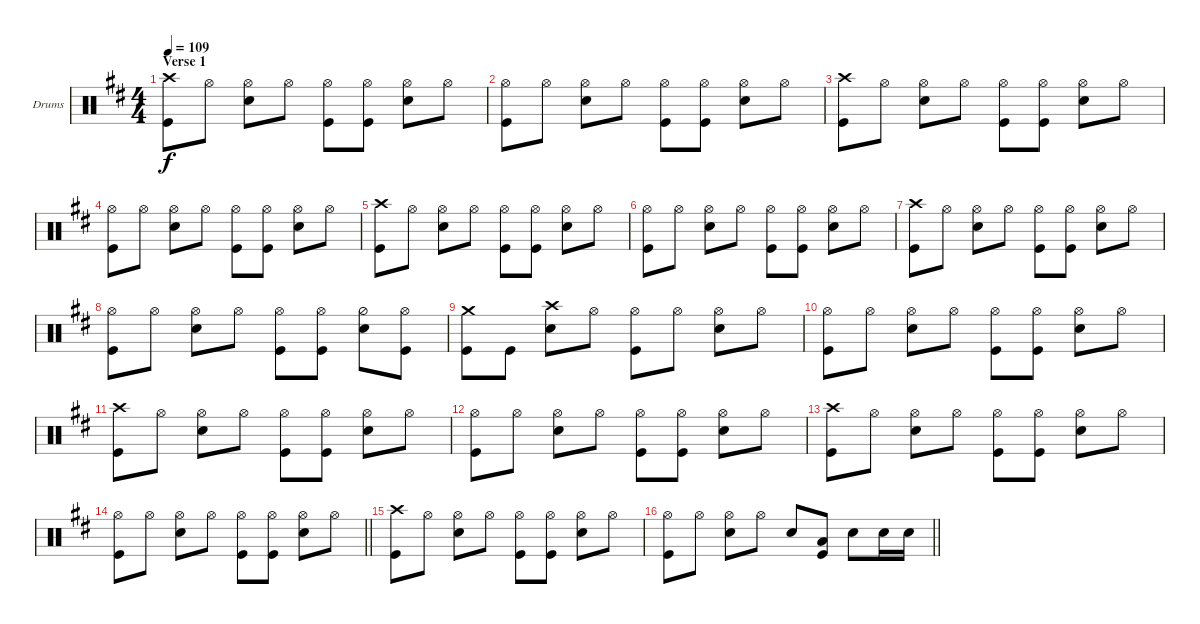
\bracketExtendMode groupsimilarinstruments
\firstSystemTrackNameOrientation horizontal
\otherSystemsTrackNameOrientation horizontal
\track ("Drumkit" "Drums") {instrument percussion}
\staff {score}
\articulation defaults
\ts (4 4)
\section ("" "Verse 1")
\tempo 109
\clef neutral
\ks d
("Kick (hit)" "Crash high (hit)").8{dy f} "Hi-Hat (open)".8 ("Snare (hit) 2" "Hi-Hat (open)").8 "Hi-Hat (open)".8 ("Kick (hit)" "Hi-Hat (open)").8 ("Kick (hit)" "Hi-Hat (open)").8 ("Snare (hit) 2" "Hi-Hat (open)").8 "Hi-Hat (open)".8 |
("Kick (hit)" "Hi-Hat (open)").8 "Hi-Hat (open)".8 ("Snare (hit) 2" "Hi-Hat (open)").8 "Hi-Hat (open)".8 ("Kick (hit)" "Hi-Hat (open)").8 ("Kick (hit)" "Hi-Hat (open)").8 ("Snare (hit) 2" "Hi-Hat (open)").8 "Hi-Hat (open)".8 |
("Kick (hit)" "Crash high (hit)").8 "Hi-Hat (open)".8 ("Snare (hit) 2" "Hi-Hat (open)").8 "Hi-Hat (open)".8 ("Kick (hit)" "Hi-Hat (open)").8 ("Kick (hit)" "Hi-Hat (open)").8 ("Snare (hit) 2" "Hi-Hat (open)").8 "Hi-Hat (open)".8 |
("Kick (hit)" "Hi-Hat (open)").8 "Hi-Hat (open)".8 ("Snare (hit) 2" "Hi-Hat (open)").8 "Hi-Hat (open)".8 ("Kick (hit)" "Hi-Hat (open)").8 ("Kick (hit)" "Hi-Hat (open)").8 ("Snare (hit) 2" "Hi-Hat (open)").8 "Hi-Hat (open)".8 |
("Kick (hit)" "Crash high (hit)").8 "Hi-Hat (open)".8 ("Snare (hit) 2" "Hi-Hat (open)").8 "Hi-Hat (open)".8 ("Kick (hit)" "Hi-Hat (open)").8 ("Kick (hit)" "Hi-Hat (open)").8 ("Snare (hit) 2" "Hi-Hat (open)").8 "Hi-Hat (open)".8 |
("Kick (hit)" "Hi-Hat (open)").8 "Hi-Hat (open)".8 ("Snare (hit) 2" "Hi-Hat (open)").8 "Hi-Hat (open)".8 ("Kick (hit)" "Hi-Hat (open)").8 ("Kick (hit)" "Hi-Hat (open)").8 ("Snare (hit) 2" "Hi-Hat (open)").8 "Hi-Hat (open)".8 |
("Kick (hit)" "Crash high (hit)").8 "Hi-Hat (open)".8 ("Snare (hit) 2" "Hi-Hat (open)").8 "Hi-Hat (open)".8 ("Kick (hit)" "Hi-Hat (open)").8 ("Kick (hit)" "Hi-Hat (open)").8 ("Snare (hit) 2" "Hi-Hat (open)").8 "Hi-Hat (open)".8 |
("Kick (hit)" "Hi-Hat (open)").8 "Hi-Hat (open)".8 ("Snare (hit) 2" "Hi-Hat (open)").8 "Hi-Hat (open)".8 ("Kick (hit)" "Hi-Hat (open)").8 ("Kick (hit)" "Hi-Hat (open)").8 ("Snare (hit) 2" "Hi-Hat (half)").8 ("Kick (hit)" "Hi-Hat (open)").8 |
("Kick (hit)" "Crash medium (hit)").8 "Kick (hit)".8 ("Snare (hit) 2" "Crash high (hit)").8 "Hi-Hat (open)".8 ("Kick (hit)" "Hi-Hat (open)").8 "Hi-Hat (open)".8 ("Snare (hit) 2" "Hi-Hat (open)").8 "Hi-Hat (open)".8 |
("Kick (hit)" "Hi-Hat (open)").8 "Hi-Hat (open)".8 ("Snare (hit) 2" "Hi-Hat (open)").8 "Hi-Hat (open)".8 ("Kick (hit)" "Hi-Hat (open)").8 ("Kick (hit)" "Hi-Hat (open)").8 ("Snare (hit) 2" "Hi-Hat (open)").8 "Hi-Hat (open)".8 |
("Kick (hit)" "Crash high (hit)").8 "Hi-Hat (open)".8 ("Snare (hit) 2" "Hi-Hat (open)").8 "Hi-Hat (open)".8 ("Kick (hit)" "Hi-Hat (open)").8 ("Kick (hit)" "Hi-Hat (open)").8 ("Snare (hit) 2" "Hi-Hat (open)").8 "Hi-Hat (open)".8 |
("Kick (hit)" "Hi-Hat (open)").8 "Hi-Hat (open)".8 ("Snare (hit) 2" "Hi-Hat (open)").8 "Hi-Hat (open)".8 ("Kick (hit)" "Hi-Hat (open)").8 ("Kick (hit)" "Hi-Hat (open)").8 ("Snare (hit) 2" "Hi-Hat (open)").8 "Hi-Hat (open)".8 |
("Kick (hit)" "Crash high (hit)").8 "Hi-Hat (open)".8 ("Snare (hit) 2" "Hi-Hat (open)").8 "Hi-Hat (open)".8 ("Kick (hit)" "Hi-Hat (open)").8 ("Kick (hit)" "Hi-Hat (open)").8 ("Snare (hit) 2" "Hi-Hat (open)").8 "Hi-Hat (open)".8 |
\barLineRight lightlight
("Kick (hit)" "Hi-Hat (open)").8 "Hi-Hat (open)".8 ("Snare (hit) 2" "Hi-Hat (open)").8 "Hi-Hat (open)".8 ("Kick (hit)" "Hi-Hat (open)").8 ("Kick (hit)" "Hi-Hat (open)").8 ("Snare (hit) 2" "Hi-Hat (open)").8 "Hi-Hat (open)".8 |
("Kick (hit)" "Crash high (hit)").8 "Hi-Hat (open)".8 ("Snare (hit) 2" "Hi-Hat (open)").8 "Hi-Hat (open)".8 ("Kick (hit)" "Hi-Hat (open)").8 ("Kick (hit)" "Hi-Hat (open)").8 ("Snare (hit) 2" "Hi-Hat (open)").8 "Hi-Hat (open)".8 |
\barLineRight lightlight
("Kick (hit)" "Hi-Hat (open)").8 "Hi-Hat (open)".8 ("Snare (hit) 2" "Hi-Hat (open)").8 "Hi-Hat (open)".8 "Snare (hit) 2".8 ("Kick (hit)" "Low Tom (hit)").8 "Snare (hit) 2".8 "Snare (hit) 2".16 "Snare (hit) 2".16
